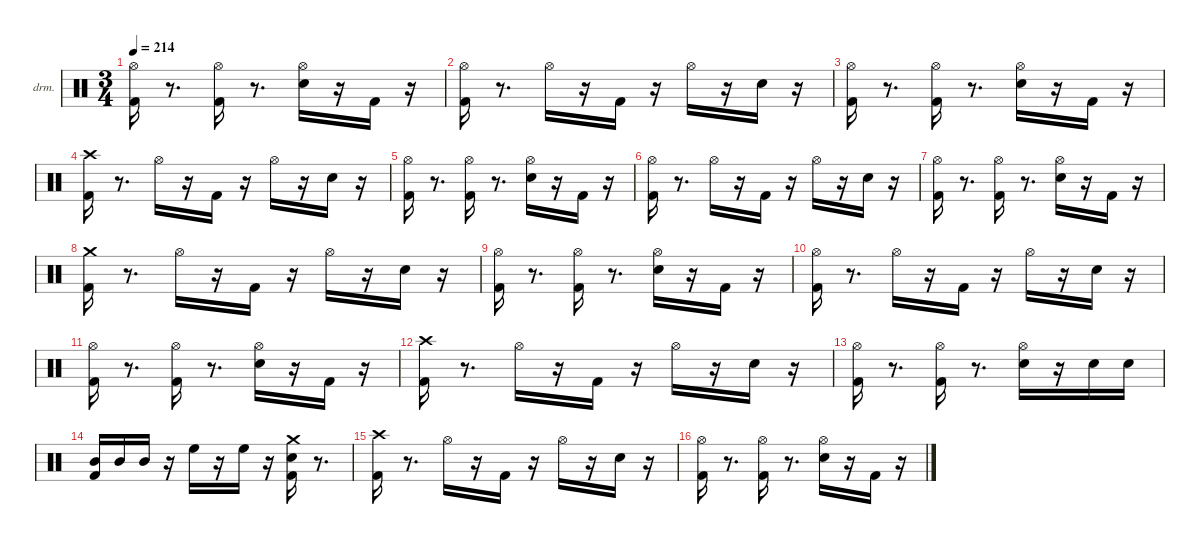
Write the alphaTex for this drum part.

\hideDynamics
\bracketExtendMode nobrackets
\firstSystemTrackNameOrientation horizontal
\otherSystemsTrackNameOrientation horizontal
\track ("EZdrummer 3" "drm.") {instrument percussion}
\staff {score}
\articulation defaults
\ts (3 4)
\tempo 214
\clef neutral
\ks aminor
("Kick (hit) 2" "Hi-Hat (open)"{acc #}).16{dy ff} r.8{d} ("Kick (hit) 2" "Hi-Hat (open)"{acc #}).16{dy f} r.8{d} ("Snare (hit) 2" "Hi-Hat (open)"{acc #}).16 r.16 "Kick (hit) 2".16{dy mp} r.16 |
("Kick (hit) 2" "Hi-Hat (open)"{acc #}).16{dy fff} r.8{d} "Hi-Hat (open)"{acc #}.16{dy mf} r.16 "Kick (hit) 2".16{dy ff} r.16 "Hi-Hat (open)"{acc #}.16{dy f} r.16 "Snare (hit) 2".16{dy ff} r.16 |
("Kick (hit) 2" "Hi-Hat (open)"{acc #}).16{dy fff} r.8{d} ("Kick (hit) 2" "Hi-Hat (open)"{acc #}).16{dy ff} r.8{d} ("Snare (hit) 2" "Hi-Hat (open)"{acc #}).16{dy f} r.16 "Kick (hit) 2".16{dy mp} r.16 |
("Kick (hit) 2" "Crash high (hit)"{acc #}).16{dy fff} r.8{d} "Hi-Hat (open)"{acc #}.16{dy mf} r.16 "Kick (hit) 2".16{dy ff} r.16 "Hi-Hat (open)"{acc #}.16{dy f} r.16 "Snare (hit) 2".16{dy ff} r.16 |
("Kick (hit) 2" "Hi-Hat (open)"{acc #}).16 r.8{d} ("Kick (hit) 2" "Hi-Hat (open)"{acc #}).16{dy f} r.8{d} ("Snare (hit) 2" "Hi-Hat (open)"{acc #}).16 r.16 "Kick (hit) 2".16{dy mp} r.16 |
("Kick (hit) 2" "Hi-Hat (open)"{acc #}).16{dy fff} r.8{d} "Hi-Hat (open)"{acc #}.16{dy mf} r.16 "Kick (hit) 2".16{dy ff} r.16 "Hi-Hat (open)"{acc #}.16{dy f} r.16 "Snare (hit) 2".16{dy ff} r.16 |
("Kick (hit) 2" "Hi-Hat (open)"{acc #}).16{dy fff} r.8{d} ("Kick (hit) 2" "Hi-Hat (open)"{acc #}).16{dy f} r.8{d} ("Snare (hit) 2" "Hi-Hat (open)"{acc #}).16 r.16 "Kick (hit) 2".16{dy mp} r.16 |
("Kick (hit) 2" "Crash medium (hit)").16{dy fff} r.8{d} "Hi-Hat (open)"{acc #}.16{dy mf} r.16 "Kick (hit) 2".16{dy ff} r.16 "Hi-Hat (open)"{acc #}.16{dy f} r.16 "Snare (hit) 2".16{dy ff} r.16 |
("Kick (hit) 2" "Hi-Hat (open)"{acc #}).16 r.8{d} ("Kick (hit) 2" "Hi-Hat (open)"{acc #}).16{dy f} r.8{d} ("Snare (hit) 2" "Hi-Hat (open)"{acc #}).16 r.16 "Kick (hit) 2".16{dy mp} r.16 |
("Kick (hit) 2" "Hi-Hat (open)"{acc #}).16{dy fff} r.8{d} "Hi-Hat (open)"{acc #}.16{dy mf} r.16 "Kick (hit) 2".16{dy ff} r.16 "Hi-Hat (open)"{acc #}.16{dy f} r.16 "Snare (hit) 2".16{dy ff} r.16 |
("Kick (hit) 2" "Hi-Hat (open)"{acc #}).16{dy fff} r.8{d} ("Kick (hit) 2" "Hi-Hat (open)"{acc #}).16{dy ff} r.8{d} ("Snare (hit) 2" "Hi-Hat (open)"{acc #}).16{dy f} r.16 "Kick (hit) 2".16{dy mp} r.16 |
("Kick (hit) 2" "Crash high (hit)"{acc #}).16{dy ff} r.8{d} "Hi-Hat (open)"{acc #}.16{dy f} r.16 "Kick (hit) 2".16{dy ff} r.16 "Hi-Hat (open)"{acc #}.16 r.16 "Snare (hit) 2".16 r.16 |
("Kick (hit) 2" "Hi-Hat (open)"{acc #}).16{dy fff} r.8{d} ("Kick (hit) 2" "Hi-Hat (open)"{acc #}).16{dy mf} r.8{d} ("Snare (hit) 2" "Hi-Hat (open)"{acc #}).16{dy fff} r.16 "Snare (hit) 2".16{dy mf} "Snare (hit) 2".16{dy pp} |
("Kick (hit) 2" "Mid Tom (hit)").16{dy ff} "Mid Tom (hit)".16{dy mf} "Mid Tom (hit)".16{dy fff} r.16 "High Floor Tom (hit)".16{dy ff} r.16 "High Floor Tom (hit)".16{dy mf} r.16 ("Kick (hit) 2" "Snare (hit) 2" "Crash medium (hit)").16{dy ff} r.8{d} |
("Kick (hit) 2" "Crash high (hit)"{acc #}).16{dy fff} r.8{d} "Hi-Hat (open)"{acc #}.16{dy mf} r.16 "Kick (hit) 2".16{dy ff} r.16 "Hi-Hat (open)"{acc #}.16{dy f} r.16 "Snare (hit) 2".16{dy ff} r.16 |
("Kick (hit) 2" "Hi-Hat (open)"{acc #}).16 r.8{d} ("Kick (hit) 2" "Hi-Hat (open)"{acc #}).16{dy f} r.8{d} ("Snare (hit) 2" "Hi-Hat (open)"{acc #}).16 r.16 "Kick (hit) 2".16{dy mp} r.16
